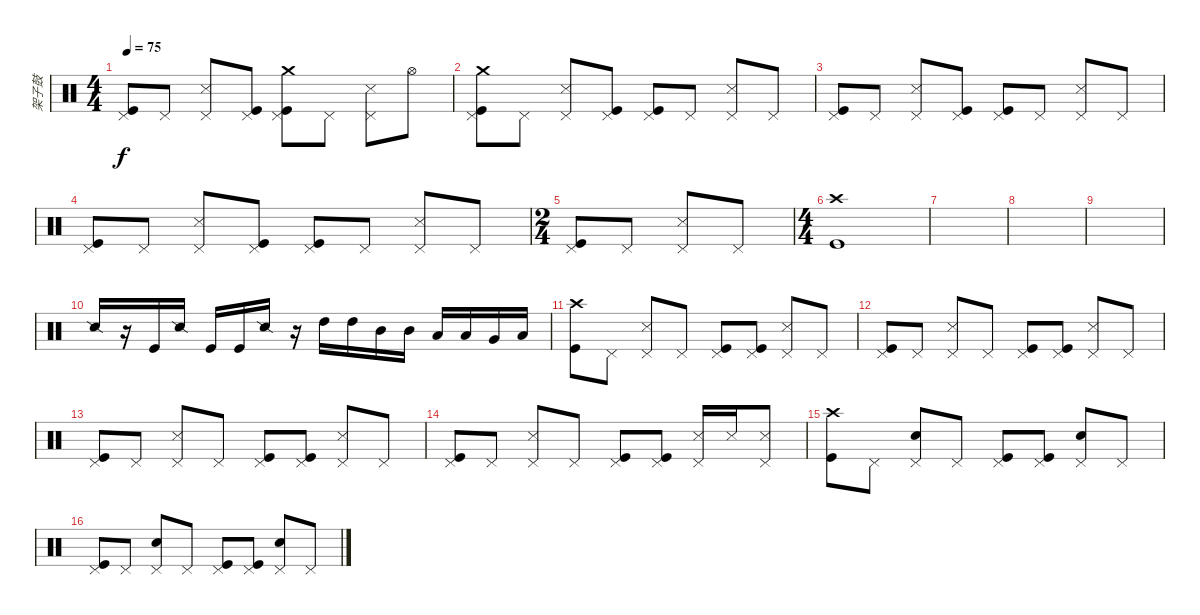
\track ("架子鼓" "架子鼓") {instrument percussion}
\staff {score}
\articulation defaults
\ts (4 4)
\tempo 75
\clef neutral
\ks c
("Kick (hit)" "Pedal Hi-Hat (hit)").8{dy f} "Pedal Hi-Hat (hit)".8 ("Snare (side stick) 3" "Pedal Hi-Hat (hit)").8 ("Kick (hit)" "Pedal Hi-Hat (hit)").8 ("Kick (hit)" "Pedal Hi-Hat (hit)" "Crash medium (hit)").8 "Pedal Hi-Hat (hit)".8 ("Snare (side stick) 3" "Pedal Hi-Hat (hit)").8 "Hi-Hat (open)".8 |
("Kick (hit)" "Pedal Hi-Hat (hit)" "Crash medium (hit)").8 "Pedal Hi-Hat (hit)".8 ("Snare (side stick) 3" "Pedal Hi-Hat (hit)").8 ("Kick (hit)" "Pedal Hi-Hat (hit)").8 ("Kick (hit)" "Pedal Hi-Hat (hit)").8 "Pedal Hi-Hat (hit)".8 ("Snare (side stick) 3" "Pedal Hi-Hat (hit)").8 "Pedal Hi-Hat (hit)".8 |
("Kick (hit)" "Pedal Hi-Hat (hit)").8 "Pedal Hi-Hat (hit)".8 ("Snare (side stick) 3" "Pedal Hi-Hat (hit)").8 ("Kick (hit)" "Pedal Hi-Hat (hit)").8 ("Kick (hit)" "Pedal Hi-Hat (hit)").8 "Pedal Hi-Hat (hit)".8 ("Snare (side stick) 3" "Pedal Hi-Hat (hit)").8 "Pedal Hi-Hat (hit)".8 |
("Kick (hit)" "Pedal Hi-Hat (hit)").8 "Pedal Hi-Hat (hit)".8 ("Snare (side stick) 3" "Pedal Hi-Hat (hit)").8 ("Kick (hit)" "Pedal Hi-Hat (hit)").8 ("Kick (hit)" "Pedal Hi-Hat (hit)").8 "Pedal Hi-Hat (hit)".8 ("Snare (side stick) 3" "Pedal Hi-Hat (hit)").8 "Pedal Hi-Hat (hit)".8 |
\ts (2 4)
("Kick (hit)" "Pedal Hi-Hat (hit)").8 "Pedal Hi-Hat (hit)".8 ("Snare (side stick) 3" "Pedal Hi-Hat (hit)").8 "Pedal Hi-Hat (hit)".8 |
\ts (4 4)
("Kick (hit)" "Crash high (hit)").1 |
|
|
|
"Snare (side stick) 2".16 r.16 "Kick (hit)".16 "Snare (side stick) 2".16 "Kick (hit)".16 "Kick (hit)".16 "Snare (side stick) 2".16 r.16 "High Tom (hit)".16 "High Tom (hit)".16 "Mid Tom (hit)".16 "Mid Tom (hit)".16 "Low Tom (hit)".16 "Low Tom (hit)".16 "Very Low Tom (hit)".16 "Low Floor Tom (hit)".16 |
("Kick (hit)" "Crash high (hit)").8 "Pedal Hi-Hat (hit)".8 ("Snare (side stick) 3" "Pedal Hi-Hat (hit)").8 "Pedal Hi-Hat (hit)".8 ("Kick (hit)" "Pedal Hi-Hat (hit)").8 ("Kick (hit)" "Pedal Hi-Hat (hit)").8 ("Snare (side stick) 3" "Pedal Hi-Hat (hit)").8 "Pedal Hi-Hat (hit)".8 |
("Kick (hit)" "Pedal Hi-Hat (hit)").8 "Pedal Hi-Hat (hit)".8 ("Snare (side stick) 3" "Pedal Hi-Hat (hit)").8 "Pedal Hi-Hat (hit)".8 ("Kick (hit)" "Pedal Hi-Hat (hit)").8 ("Kick (hit)" "Pedal Hi-Hat (hit)").8 ("Snare (side stick) 3" "Pedal Hi-Hat (hit)").8 "Pedal Hi-Hat (hit)".8 |
("Kick (hit)" "Pedal Hi-Hat (hit)").8 "Pedal Hi-Hat (hit)".8 ("Snare (side stick) 3" "Pedal Hi-Hat (hit)").8 "Pedal Hi-Hat (hit)".8 ("Kick (hit)" "Pedal Hi-Hat (hit)").8 ("Kick (hit)" "Pedal Hi-Hat (hit)").8 ("Snare (side stick) 3" "Pedal Hi-Hat (hit)").8 "Pedal Hi-Hat (hit)".8 |
("Kick (hit)" "Pedal Hi-Hat (hit)").8 "Pedal Hi-Hat (hit)".8 ("Snare (side stick) 3" "Pedal Hi-Hat (hit)").8 "Pedal Hi-Hat (hit)".8 ("Kick (hit)" "Pedal Hi-Hat (hit)").8 ("Kick (hit)" "Pedal Hi-Hat (hit)").8 ("Snare (side stick) 3" "Pedal Hi-Hat (hit)").16 "Snare (side stick) 3".16 ("Snare (side stick) 3" "Pedal Hi-Hat (hit)").8 |
("Kick (hit)" "Crash high (hit)").8 "Pedal Hi-Hat (hit)".8 ("Snare (hit) 2" "Pedal Hi-Hat (hit)").8 "Pedal Hi-Hat (hit)".8 ("Kick (hit)" "Pedal Hi-Hat (hit)").8 ("Kick (hit)" "Pedal Hi-Hat (hit)").8 ("Snare (hit) 2" "Pedal Hi-Hat (hit)").8 "Pedal Hi-Hat (hit)".8 |
("Kick (hit)" "Pedal Hi-Hat (hit)").8 "Pedal Hi-Hat (hit)".8 ("Snare (hit) 2" "Pedal Hi-Hat (hit)").8 "Pedal Hi-Hat (hit)".8 ("Kick (hit)" "Pedal Hi-Hat (hit)").8 ("Kick (hit)" "Pedal Hi-Hat (hit)").8 ("Snare (hit) 2" "Pedal Hi-Hat (hit)").8 "Pedal Hi-Hat (hit)".8
